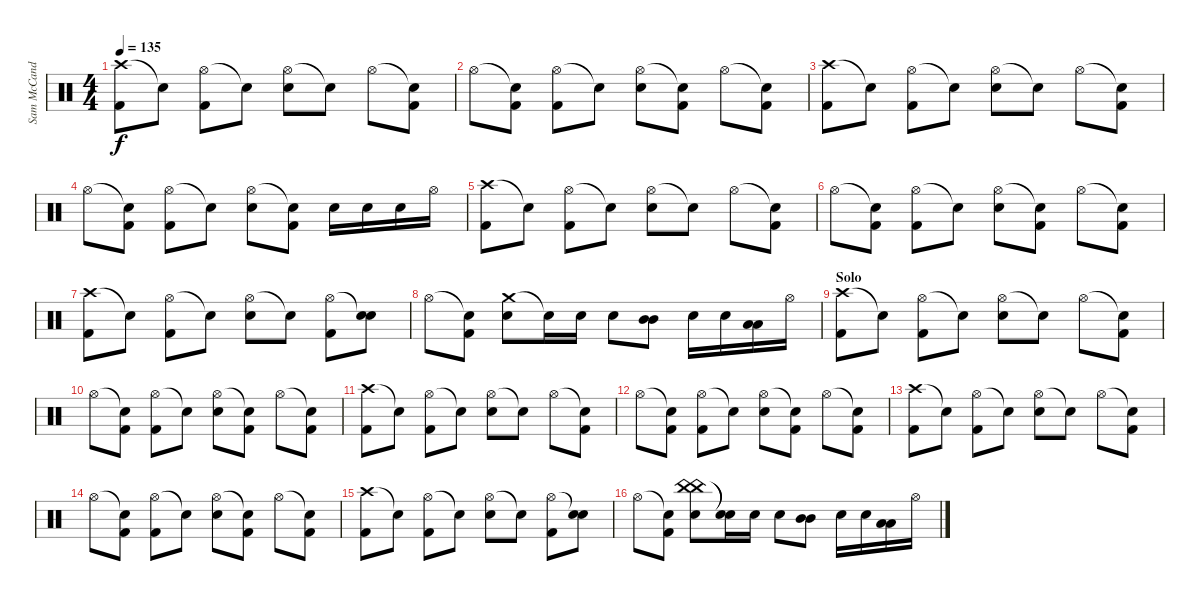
\track ("Sam McCandless (Drums)" "Sam McCand") {instrument percussion}
\staff {score}
\articulation defaults
\ts (4 4)
\tempo 135
\clef neutral
\ks c
("Crash high (hit)" "Kick (hit) 2").8{dy f} "Snare (hit)"{t}.8 ("Hi-Hat (open)" "Kick (hit) 2").8 "Snare (hit)"{t}.8 ("Hi-Hat (open)" "Electric Snare (hit)").8 "Snare (hit)"{t}.8 "Hi-Hat (open)".8 ("Snare (hit)"{t} "Kick (hit) 2").8 |
"Hi-Hat (open)".8 ("Snare (hit)"{t} "Kick (hit) 2").8 ("Hi-Hat (open)" "Kick (hit) 2").8 "Snare (hit)"{t}.8 ("Hi-Hat (open)" "Electric Snare (hit)").8 ("Snare (hit)"{t} "Kick (hit) 2").8 "Hi-Hat (open)".8 ("Snare (hit)"{t} "Kick (hit) 2").8 |
("Crash high (hit)" "Kick (hit) 2").8 "Snare (hit)"{t}.8 ("Hi-Hat (open)" "Kick (hit) 2").8 "Snare (hit)"{t}.8 ("Hi-Hat (open)" "Electric Snare (hit)").8 "Snare (hit)"{t}.8 "Hi-Hat (open)".8 ("Snare (hit)"{t} "Kick (hit) 2").8 |
"Hi-Hat (open)".8 ("Snare (hit)"{t} "Kick (hit) 2").8 ("Hi-Hat (open)" "Kick (hit) 2").8 "Snare (hit)"{t}.8 ("Hi-Hat (open)" "Electric Snare (hit)").8 ("Snare (hit)"{t} "Kick (hit) 2").8 "Electric Snare (hit)".16 "Electric Snare (hit)".16 "Electric Snare (hit)".16 "Hi-Hat (open)".16 |
("Crash high (hit)" "Kick (hit) 2").8 "Snare (hit)"{t}.8 ("Hi-Hat (open)" "Kick (hit) 2").8 "Snare (hit)"{t}.8 ("Hi-Hat (open)" "Electric Snare (hit)").8 "Snare (hit)"{t}.8 "Hi-Hat (open)".8 ("Snare (hit)"{t} "Kick (hit) 2").8 |
"Hi-Hat (open)".8 ("Snare (hit)"{t} "Kick (hit) 2").8 ("Hi-Hat (open)" "Kick (hit) 2").8 "Snare (hit)"{t}.8 ("Hi-Hat (open)" "Electric Snare (hit)").8 ("Snare (hit)"{t} "Kick (hit) 2").8 "Hi-Hat (open)".8 ("Snare (hit)"{t} "Kick (hit) 2").8 |
("Crash high (hit)" "Kick (hit) 2").8 "Snare (hit)"{t}.8 ("Hi-Hat (open)" "Kick (hit) 2").8 "Snare (hit)"{t}.8 ("Hi-Hat (open)" "Electric Snare (hit)").8 "Snare (hit)"{t}.8 ("Hi-Hat (open)" "Kick (hit) 2").8 ("Snare (hit)"{t} "Electric Snare (hit)").8 |
"Hi-Hat (open)".8 ("Snare (hit)"{t} "Kick (hit) 2").8 ("Crash medium (hit)" "Electric Snare (hit)").8 "Snare (hit)"{t}.16 "Electric Snare (hit)".16 "Electric Snare (hit)".8 ("Mid Tom (hit)" "Mid Tom (hit)").8 "Electric Snare (hit)".16 "Electric Snare (hit)".16 ("Low Tom (hit)" "Low Tom (hit)").16 "Hi-Hat (open)".16 |
\section ("" "Solo")
("Crash high (hit)" "Kick (hit) 2").8 "Snare (hit)"{t}.8 ("Hi-Hat (open)" "Kick (hit) 2").8 "Snare (hit)"{t}.8 ("Hi-Hat (open)" "Electric Snare (hit)").8 "Snare (hit)"{t}.8 "Hi-Hat (open)".8 ("Snare (hit)"{t} "Kick (hit) 2").8 |
"Hi-Hat (open)".8 ("Snare (hit)"{t} "Kick (hit) 2").8 ("Hi-Hat (open)" "Kick (hit) 2").8 "Snare (hit)"{t}.8 ("Hi-Hat (open)" "Electric Snare (hit)").8 ("Snare (hit)"{t} "Kick (hit) 2").8 "Hi-Hat (open)".8 ("Snare (hit)"{t} "Kick (hit) 2").8 |
("Crash high (hit)" "Kick (hit) 2").8 "Snare (hit)"{t}.8 ("Hi-Hat (open)" "Kick (hit) 2").8 "Snare (hit)"{t}.8 ("Hi-Hat (open)" "Electric Snare (hit)").8 "Snare (hit)"{t}.8 "Hi-Hat (open)".8 ("Snare (hit)"{t} "Kick (hit) 2").8 |
"Hi-Hat (open)".8 ("Snare (hit)"{t} "Kick (hit) 2").8 ("Hi-Hat (open)" "Kick (hit) 2").8 "Snare (hit)"{t}.8 ("Hi-Hat (open)" "Electric Snare (hit)").8 ("Snare (hit)"{t} "Kick (hit) 2").8 "Hi-Hat (open)".8 ("Snare (hit)"{t} "Kick (hit) 2").8 |
("Crash high (hit)" "Kick (hit) 2").8 "Snare (hit)"{t}.8 ("Hi-Hat (open)" "Kick (hit) 2").8 "Snare (hit)"{t}.8 ("Hi-Hat (open)" "Electric Snare (hit)").8 "Snare (hit)"{t}.8 "Hi-Hat (open)".8 ("Snare (hit)"{t} "Kick (hit) 2").8 |
"Hi-Hat (open)".8 ("Snare (hit)"{t} "Kick (hit) 2").8 ("Hi-Hat (open)" "Kick (hit) 2").8 "Snare (hit)"{t}.8 ("Hi-Hat (open)" "Electric Snare (hit)").8 ("Snare (hit)"{t} "Kick (hit) 2").8 "Hi-Hat (open)".8 ("Snare (hit)"{t} "Kick (hit) 2").8 |
("Crash high (hit)" "Kick (hit) 2").8 "Snare (hit)"{t}.8 ("Hi-Hat (open)" "Kick (hit) 2").8 "Snare (hit)"{t}.8 ("Hi-Hat (open)" "Electric Snare (hit)").8 "Snare (hit)"{t}.8 ("Hi-Hat (open)" "Kick (hit) 2").8 ("Snare (hit)"{t} "Electric Snare (hit)").8 |
"Hi-Hat (open)".8 ("Snare (hit)"{t} "Kick (hit) 2").8 ("China (hit)" "China (hit)" "Electric Snare (hit)").8 ("Snare (hit)"{t} "Snare (hit)"{t}).16 "Electric Snare (hit)".16 "Electric Snare (hit)".8 ("Mid Tom (hit)" "Mid Tom (hit)").8 "Electric Snare (hit)".16 "Electric Snare (hit)".16 ("Low Tom (hit)" "Low Tom (hit)").16 "Hi-Hat (open)".16
